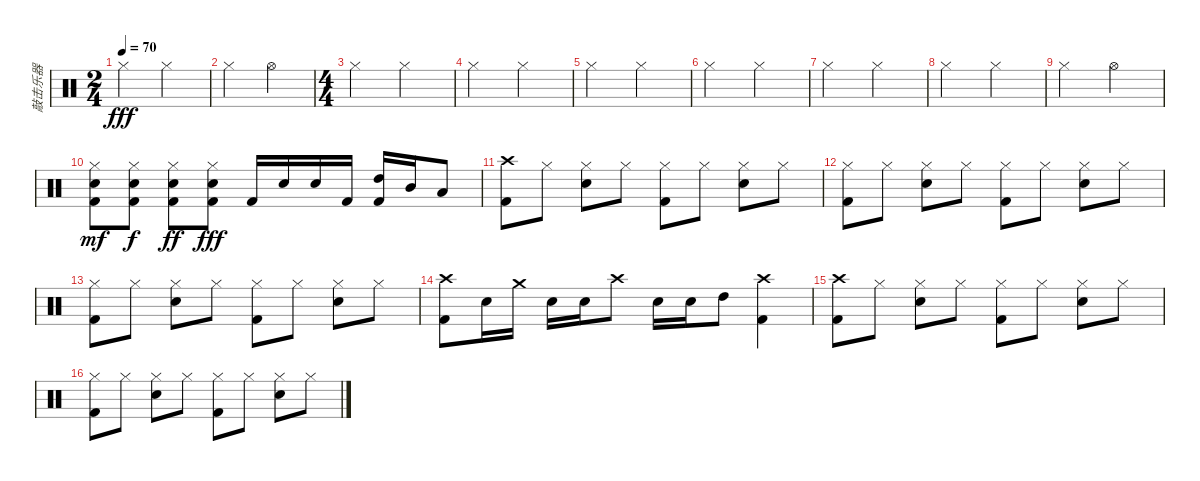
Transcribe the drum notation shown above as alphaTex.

\track ("敲击乐器" "敲击乐器") {instrument percussion}
\staff {score}
\articulation defaults
\ts (2 4)
\tempo 70
\clef neutral
\ks c "Hi-Hat (closed)".4{dy fff} "Hi-Hat (closed)".4
|
"Hi-Hat (closed)".4 "Hi-Hat (open)".4 |
\ts (4 4)
"Hi-Hat (closed)".2 "Hi-Hat (closed)".2 |
"Hi-Hat (closed)".2 "Hi-Hat (closed)".2 |
"Hi-Hat (closed)".2 "Hi-Hat (closed)".2 |
"Hi-Hat (closed)".2 "Hi-Hat (closed)".2 |
"Hi-Hat (closed)".2 "Hi-Hat (closed)".2 |
"Hi-Hat (closed)".2 "Hi-Hat (closed)".2 |
"Hi-Hat (closed)".2 "Hi-Hat (open)".2 |
("Hi-Hat (closed)" "Electric Snare (hit)" "Kick (hit) 2").8{dy mf} ("Hi-Hat (closed)" "Electric Snare (hit)" "Kick (hit) 2").8{dy f} ("Hi-Hat (closed)" "Electric Snare (hit)" "Kick (hit) 2").8{dy ff} ("Hi-Hat (closed)" "Electric Snare (hit)" "Kick (hit) 2").8{dy fff} "Kick (hit) 2".16 "Electric Snare (hit)".16 "Electric Snare (hit)".16 "Kick (hit) 2".16 ("High Tom (hit)" "Kick (hit) 2").16 "Mid Tom (hit)".16 "Low Tom (hit)".8 |
("Crash high (hit)" "Kick (hit) 2").8 "Hi-Hat (closed)".8 ("Hi-Hat (closed)" "Electric Snare (hit)").8 "Hi-Hat (closed)".8 ("Hi-Hat (closed)" "Kick (hit) 2").8 "Hi-Hat (closed)".8 ("Hi-Hat (closed)" "Electric Snare (hit)").8 "Hi-Hat (closed)".8 |
("Hi-Hat (closed)" "Kick (hit) 2").8 "Hi-Hat (closed)".8 ("Hi-Hat (closed)" "Electric Snare (hit)").8 "Hi-Hat (closed)".8 ("Hi-Hat (closed)" "Kick (hit) 2").8 "Hi-Hat (closed)".8 ("Hi-Hat (closed)" "Electric Snare (hit)").8 "Hi-Hat (closed)".8 |
("Hi-Hat (closed)" "Kick (hit) 2").8 "Hi-Hat (closed)".8 ("Hi-Hat (closed)" "Electric Snare (hit)").8 "Hi-Hat (closed)".8 ("Hi-Hat (closed)" "Kick (hit) 2").8 "Hi-Hat (closed)".8 ("Hi-Hat (closed)" "Electric Snare (hit)").8 "Hi-Hat (closed)".8 |
("Crash high (hit)" "Kick (hit) 2").8 "Electric Snare (hit)".16 "Crash medium (hit)".16 "Electric Snare (hit)".16 "Electric Snare (hit)".16 "Crash high (hit)".8 "Electric Snare (hit)".16 "Electric Snare (hit)".16 "High Tom (hit)".8 ("Crash high (hit)" "Kick (hit) 2").4 |
("Crash high (hit)" "Kick (hit) 2").8 "Hi-Hat (closed)".8 ("Hi-Hat (closed)" "Electric Snare (hit)").8 "Hi-Hat (closed)".8 ("Hi-Hat (closed)" "Kick (hit) 2").8 "Hi-Hat (closed)".8 ("Hi-Hat (closed)" "Electric Snare (hit)").8 "Hi-Hat (closed)".8 |
("Hi-Hat (closed)" "Kick (hit) 2").8 "Hi-Hat (closed)".8 ("Hi-Hat (closed)" "Electric Snare (hit)").8 "Hi-Hat (closed)".8 ("Hi-Hat (closed)" "Kick (hit) 2").8 "Hi-Hat (closed)".8 ("Hi-Hat (closed)" "Electric Snare (hit)").8 "Hi-Hat (closed)".8
